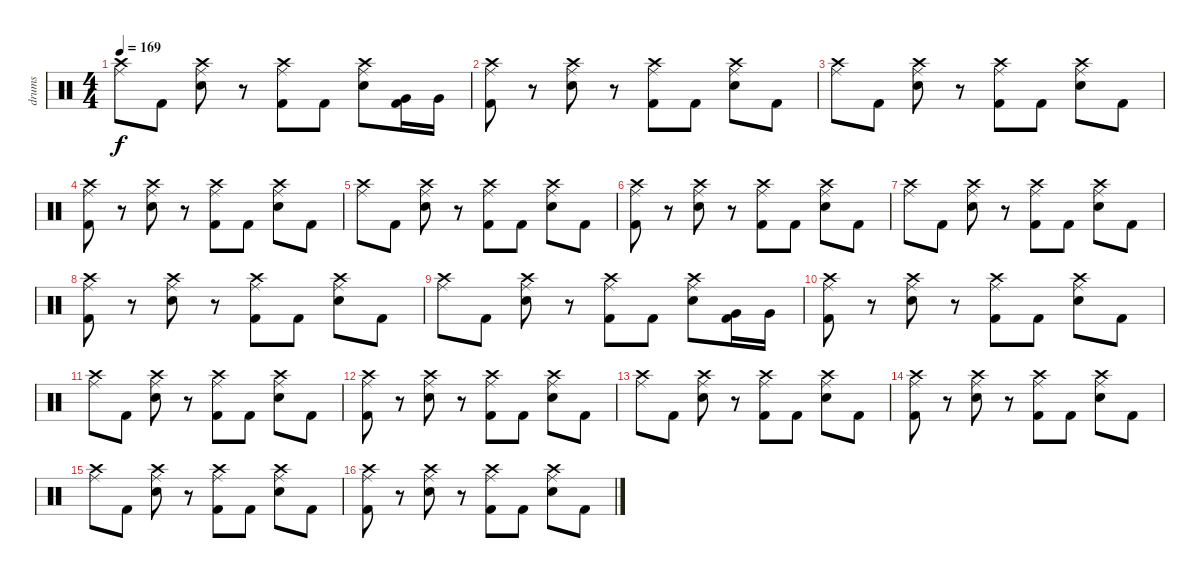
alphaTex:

\track ("drums" "drums") {instrument percussion}
\staff {score}
\articulation defaults
\ts (4 4)
\tempo 169
\clef neutral
\ks c
("Crash high (hit)" "Ride (middle)").8{dy f} "Kick (hit) 2".8 ("Crash high (hit)" "Ride (middle)" "Snare (hit) 2").8 r.8 ("Crash high (hit)" "Ride (middle)" "Kick (hit) 2").8 "Kick (hit) 2".8 ("Crash high (hit)" "Ride (middle)" "Snare (hit) 2").8 ("Very Low Tom (hit)" "Kick (hit) 2").16 "Very Low Tom (hit)".16 |
("Crash high (hit)" "Ride (middle)" "Kick (hit) 2").8 r.8 ("Crash high (hit)" "Ride (middle)" "Snare (hit) 2").8 r.8 ("Crash high (hit)" "Ride (middle)" "Kick (hit) 2").8 "Kick (hit) 2".8 ("Crash high (hit)" "Ride (middle)" "Snare (hit) 2").8 "Kick (hit) 2".8 |
("Crash high (hit)" "Ride (middle)").8 "Kick (hit) 2".8 ("Crash high (hit)" "Ride (middle)" "Snare (hit) 2").8 r.8 ("Crash high (hit)" "Ride (middle)" "Kick (hit) 2").8 "Kick (hit) 2".8 ("Crash high (hit)" "Ride (middle)" "Snare (hit) 2").8 "Kick (hit) 2".8 |
("Crash high (hit)" "Ride (middle)" "Kick (hit) 2").8 r.8 ("Crash high (hit)" "Ride (middle)" "Snare (hit) 2").8 r.8 ("Crash high (hit)" "Ride (middle)" "Kick (hit) 2").8 "Kick (hit) 2".8 ("Crash high (hit)" "Ride (middle)" "Snare (hit) 2").8 "Kick (hit) 2".8 |
("Crash high (hit)" "Ride (middle)").8 "Kick (hit) 2".8 ("Crash high (hit)" "Ride (middle)" "Snare (hit) 2").8 r.8 ("Crash high (hit)" "Ride (middle)" "Kick (hit) 2").8 "Kick (hit) 2".8 ("Crash high (hit)" "Ride (middle)" "Snare (hit) 2").8 "Kick (hit) 2".8 |
("Crash high (hit)" "Ride (middle)" "Kick (hit) 2").8 r.8 ("Crash high (hit)" "Ride (middle)" "Snare (hit) 2").8 r.8 ("Crash high (hit)" "Ride (middle)" "Kick (hit) 2").8 "Kick (hit) 2".8 ("Crash high (hit)" "Ride (middle)" "Snare (hit) 2").8 "Kick (hit) 2".8 |
("Crash high (hit)" "Ride (middle)").8 "Kick (hit) 2".8 ("Crash high (hit)" "Ride (middle)" "Snare (hit) 2").8 r.8 ("Crash high (hit)" "Ride (middle)" "Kick (hit) 2").8 "Kick (hit) 2".8 ("Crash high (hit)" "Ride (middle)" "Snare (hit) 2").8 "Kick (hit) 2".8 |
("Crash high (hit)" "Ride (middle)" "Kick (hit) 2").8 r.8 ("Crash high (hit)" "Ride (middle)" "Snare (hit) 2").8 r.8 ("Crash high (hit)" "Ride (middle)" "Kick (hit) 2").8 "Kick (hit) 2".8 ("Crash high (hit)" "Ride (middle)" "Snare (hit) 2").8 "Kick (hit) 2".8 |
("Crash high (hit)" "Ride (middle)").8 "Kick (hit) 2".8 ("Crash high (hit)" "Ride (middle)" "Snare (hit) 2").8 r.8 ("Crash high (hit)" "Ride (middle)" "Kick (hit) 2").8 "Kick (hit) 2".8 ("Crash high (hit)" "Ride (middle)" "Snare (hit) 2").8 ("Very Low Tom (hit)" "Kick (hit) 2").16 "Very Low Tom (hit)".16 |
("Crash high (hit)" "Ride (middle)" "Kick (hit) 2").8 r.8 ("Crash high (hit)" "Ride (middle)" "Snare (hit) 2").8 r.8 ("Crash high (hit)" "Ride (middle)" "Kick (hit) 2").8 "Kick (hit) 2".8 ("Crash high (hit)" "Ride (middle)" "Snare (hit) 2").8 "Kick (hit) 2".8 |
("Crash high (hit)" "Ride (middle)").8 "Kick (hit) 2".8 ("Crash high (hit)" "Ride (middle)" "Snare (hit) 2").8 r.8 ("Crash high (hit)" "Ride (middle)" "Kick (hit) 2").8 "Kick (hit) 2".8 ("Crash high (hit)" "Ride (middle)" "Snare (hit) 2").8 "Kick (hit) 2".8 |
("Crash high (hit)" "Ride (middle)" "Kick (hit) 2").8 r.8 ("Crash high (hit)" "Ride (middle)" "Snare (hit) 2").8 r.8 ("Crash high (hit)" "Ride (middle)" "Kick (hit) 2").8 "Kick (hit) 2".8 ("Crash high (hit)" "Ride (middle)" "Snare (hit) 2").8 "Kick (hit) 2".8 |
("Crash high (hit)" "Ride (middle)").8 "Kick (hit) 2".8 ("Crash high (hit)" "Ride (middle)" "Snare (hit) 2").8 r.8 ("Crash high (hit)" "Ride (middle)" "Kick (hit) 2").8 "Kick (hit) 2".8 ("Crash high (hit)" "Ride (middle)" "Snare (hit) 2").8 "Kick (hit) 2".8 |
("Crash high (hit)" "Ride (middle)" "Kick (hit) 2").8 r.8 ("Crash high (hit)" "Ride (middle)" "Snare (hit) 2").8 r.8 ("Crash high (hit)" "Ride (middle)" "Kick (hit) 2").8 "Kick (hit) 2".8 ("Crash high (hit)" "Ride (middle)" "Snare (hit) 2").8 "Kick (hit) 2".8 |
("Crash high (hit)" "Ride (middle)").8 "Kick (hit) 2".8 ("Crash high (hit)" "Ride (middle)" "Snare (hit) 2").8 r.8 ("Crash high (hit)" "Ride (middle)" "Kick (hit) 2").8 "Kick (hit) 2".8 ("Crash high (hit)" "Ride (middle)" "Snare (hit) 2").8 "Kick (hit) 2".8 |
("Crash high (hit)" "Ride (middle)" "Kick (hit) 2").8 r.8 ("Crash high (hit)" "Ride (middle)" "Snare (hit) 2").8 r.8 ("Crash high (hit)" "Ride (middle)" "Kick (hit) 2").8 "Kick (hit) 2".8 ("Crash high (hit)" "Ride (middle)" "Snare (hit) 2").8 "Kick (hit) 2".8
